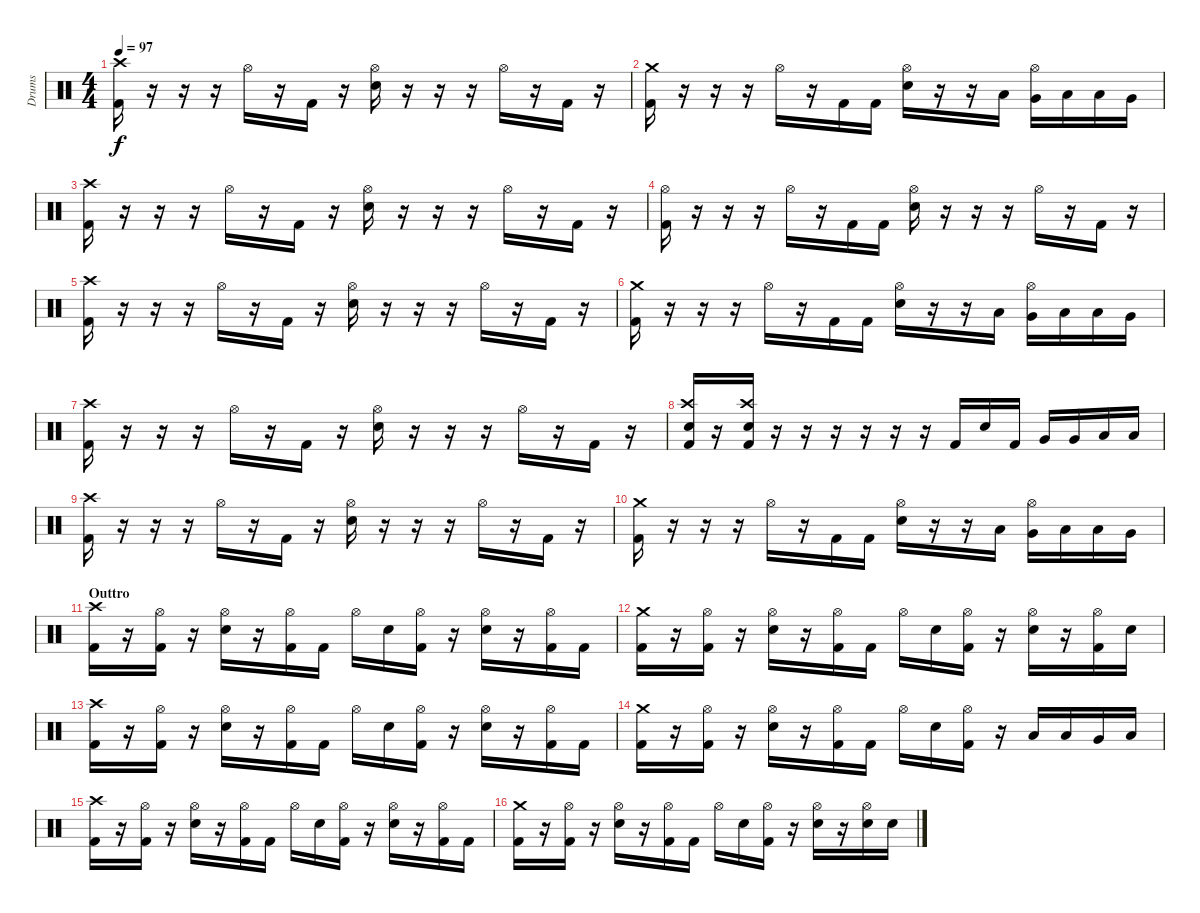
\track ("Drums" "Drums") {instrument percussion}
\staff {score}
\articulation defaults
\ts (4 4)
\tempo 97
\clef neutral
\ks c
("Kick (hit) 2" "Crash high (hit)").16{dy f} r.16 r.16 r.16 "Hi-Hat (open)".16 r.16 "Kick (hit) 2".16 r.16 ("Electric Snare (hit)" "Hi-Hat (open)").16 r.16 r.16 r.16 "Hi-Hat (open)".16 r.16 "Kick (hit) 2".16 r.16 |
("Kick (hit) 2" "Crash medium (hit)").16 r.16 r.16 r.16 "Hi-Hat (open)".16 r.16 "Kick (hit) 2".16 "Kick (hit) 2".16 ("Electric Snare (hit)" "Hi-Hat (open)").16 r.16 r.16 "Low Tom (hit)".16 ("Very Low Tom (hit)" "Hi-Hat (open)").16 "Low Floor Tom (hit)".16 "Low Floor Tom (hit)".16 "Very Low Tom (hit)".16 |
("Kick (hit) 2" "Crash high (hit)").16 r.16 r.16 r.16 "Hi-Hat (open)".16 r.16 "Kick (hit) 2".16 r.16 ("Electric Snare (hit)" "Hi-Hat (open)").16 r.16 r.16 r.16 "Hi-Hat (open)".16 r.16 "Kick (hit) 2".16 r.16 |
("Kick (hit) 2" "Hi-Hat (open)").16 r.16 r.16 r.16 "Hi-Hat (open)".16 r.16 "Kick (hit) 2".16 "Kick (hit) 2".16 ("Electric Snare (hit)" "Hi-Hat (open)").16 r.16 r.16 r.16 "Hi-Hat (open)".16 r.16 "Kick (hit) 2".16 r.16 |
("Kick (hit) 2" "Crash high (hit)").16 r.16 r.16 r.16 "Hi-Hat (open)".16 r.16 "Kick (hit) 2".16 r.16 ("Electric Snare (hit)" "Hi-Hat (open)").16 r.16 r.16 r.16 "Hi-Hat (open)".16 r.16 "Kick (hit) 2".16 r.16 |
("Kick (hit) 2" "Crash medium (hit)").16 r.16 r.16 r.16 "Hi-Hat (open)".16 r.16 "Kick (hit) 2".16 "Kick (hit) 2".16 ("Electric Snare (hit)" "Hi-Hat (open)").16 r.16 r.16 "Low Tom (hit)".16 ("Very Low Tom (hit)" "Hi-Hat (open)").16 "Low Floor Tom (hit)".16 "Low Floor Tom (hit)".16 "Very Low Tom (hit)".16 |
("Kick (hit) 2" "Crash high (hit)").16 r.16 r.16 r.16 "Hi-Hat (open)".16 r.16 "Kick (hit) 2".16 r.16 ("Electric Snare (hit)" "Hi-Hat (open)").16 r.16 r.16 r.16 "Hi-Hat (open)".16 r.16 "Kick (hit) 2".16 r.16 |
("Kick (hit) 2" "Electric Snare (hit)" "Crash high (hit)").16 r.16 ("Kick (hit) 2" "Electric Snare (hit)" "Crash high (hit)").16 r.16 r.16 r.16 r.16 r.16 r.16 "Kick (hit) 2".16 "Electric Snare (hit)".16 "Kick (hit) 2".16 "Very Low Tom (hit)".16 "Very Low Tom (hit)".16 "Low Floor Tom (hit)".16 "Low Floor Tom (hit)".16 |
("Kick (hit) 2" "Crash high (hit)").16 r.16 r.16 r.16 "Hi-Hat (open)".16 r.16 "Kick (hit) 2".16 r.16 ("Electric Snare (hit)" "Hi-Hat (open)").16 r.16 r.16 r.16 "Hi-Hat (open)".16 r.16 "Kick (hit) 2".16 r.16 |
("Kick (hit) 2" "Crash medium (hit)").16 r.16 r.16 r.16 "Hi-Hat (open)".16 r.16 "Kick (hit) 2".16 "Kick (hit) 2".16 ("Electric Snare (hit)" "Hi-Hat (open)").16 r.16 r.16 "Low Tom (hit)".16 ("Very Low Tom (hit)" "Hi-Hat (open)").16 "Low Floor Tom (hit)".16 "Low Floor Tom (hit)".16 "Very Low Tom (hit)".16 |
\section ("" "Outtro")
("Kick (hit) 2" "Crash high (hit)").16 r.16 ("Kick (hit) 2" "Hi-Hat (open)").16 r.16 ("Electric Snare (hit)" "Hi-Hat (open)").16 r.16 ("Kick (hit) 2" "Hi-Hat (open)").16 "Kick (hit) 2".16 "Hi-Hat (open)".16 "Electric Snare (hit)".16 ("Kick (hit) 2" "Hi-Hat (open)").16 r.16 ("Electric Snare (hit)" "Hi-Hat (open)").16 r.16 ("Kick (hit) 2" "Hi-Hat (open)").16 "Kick (hit) 2".16 |
("Kick (hit) 2" "Crash medium (hit)").16 r.16 ("Kick (hit) 2" "Hi-Hat (open)").16 r.16 ("Electric Snare (hit)" "Hi-Hat (open)").16 r.16 ("Kick (hit) 2" "Hi-Hat (open)").16 "Kick (hit) 2".16 "Hi-Hat (open)".16 "Electric Snare (hit)".16 ("Kick (hit) 2" "Hi-Hat (open)").16 r.16 ("Electric Snare (hit)" "Hi-Hat (open)").16 r.16 ("Kick (hit) 2" "Hi-Hat (open)").16 "Electric Snare (hit)".16 |
("Kick (hit) 2" "Crash high (hit)").16 r.16 ("Kick (hit) 2" "Hi-Hat (open)").16 r.16 ("Electric Snare (hit)" "Hi-Hat (open)").16 r.16 ("Kick (hit) 2" "Hi-Hat (open)").16 "Kick (hit) 2".16 "Hi-Hat (open)".16 "Electric Snare (hit)".16 ("Kick (hit) 2" "Hi-Hat (open)").16 r.16 ("Electric Snare (hit)" "Hi-Hat (open)").16 r.16 ("Kick (hit) 2" "Hi-Hat (open)").16 "Kick (hit) 2".16 |
("Kick (hit) 2" "Crash medium (hit)").16 r.16 ("Kick (hit) 2" "Hi-Hat (open)").16 r.16 ("Electric Snare (hit)" "Hi-Hat (open)").16 r.16 ("Kick (hit) 2" "Hi-Hat (open)").16 "Kick (hit) 2".16 "Hi-Hat (open)".16 "Electric Snare (hit)".16 ("Kick (hit) 2" "Hi-Hat (open)").16 r.16 "Low Tom (hit)".16 "Low Tom (hit)".16 "Very Low Tom (hit)".16 "Low Floor Tom (hit)".16 |
("Kick (hit) 2" "Crash high (hit)").16 r.16 ("Kick (hit) 2" "Hi-Hat (open)").16 r.16 ("Electric Snare (hit)" "Hi-Hat (open)").16 r.16 ("Kick (hit) 2" "Hi-Hat (open)").16 "Kick (hit) 2".16 "Hi-Hat (open)".16 "Electric Snare (hit)".16 ("Kick (hit) 2" "Hi-Hat (open)").16 r.16 ("Electric Snare (hit)" "Hi-Hat (open)").16 r.16 ("Kick (hit) 2" "Hi-Hat (open)").16 "Kick (hit) 2".16 |
("Kick (hit) 2" "Crash medium (hit)").16 r.16 ("Kick (hit) 2" "Hi-Hat (open)").16 r.16 ("Electric Snare (hit)" "Hi-Hat (open)").16 r.16 ("Kick (hit) 2" "Hi-Hat (open)").16 "Kick (hit) 2".16 "Hi-Hat (open)".16 "Electric Snare (hit)".16 ("Kick (hit) 2" "Hi-Hat (open)").16 r.16 ("Electric Snare (hit)" "Hi-Hat (open)").16 r.16 ("Electric Snare (hit)" "Hi-Hat (open)").16 "Electric Snare (hit)".16
